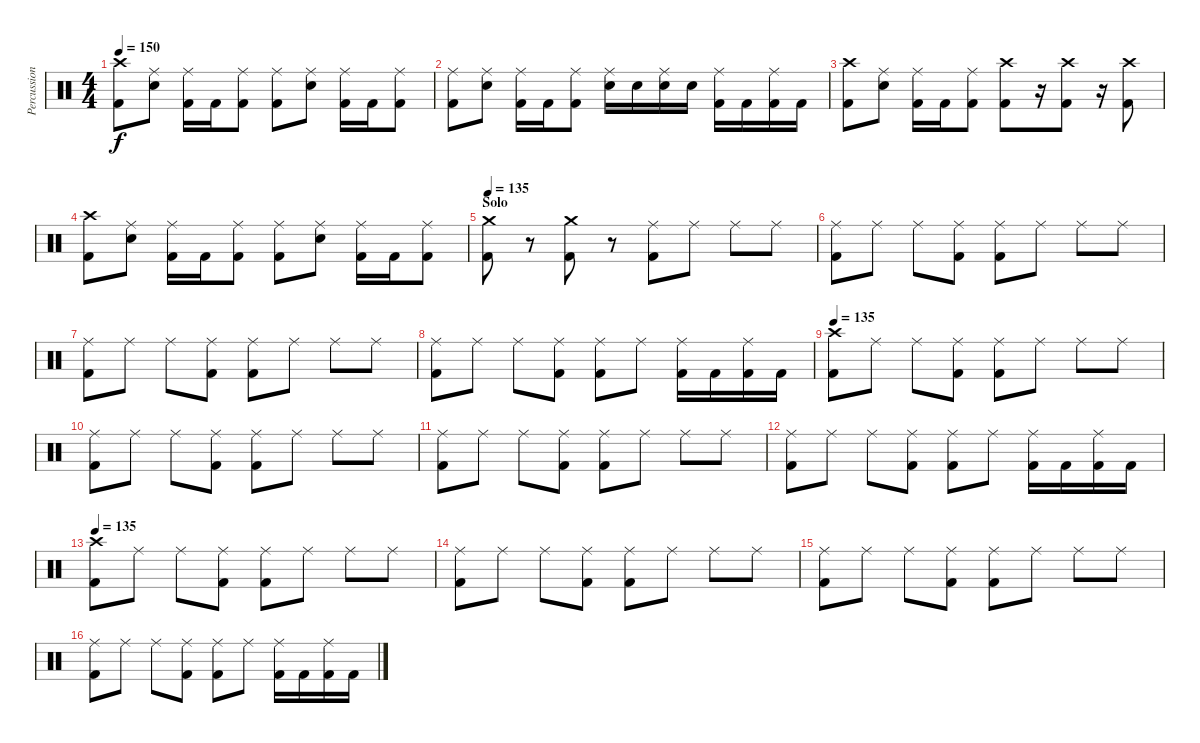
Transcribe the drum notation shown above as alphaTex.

\track ("Percussion" "Percussion") {instrument percussion}
\staff {score}
\articulation defaults
\ts (4 4)
\tempo 150
\clef neutral
\ks c
("Crash high (hit)" "Kick (hit) 2").8{dy f} ("Ride (middle)" "Electric Snare (hit)").8 ("Ride (middle)" "Kick (hit) 2").16 "Kick (hit) 2".16 ("Ride (middle)" "Kick (hit) 2").8 ("Ride (middle)" "Kick (hit) 2").8 ("Ride (middle)" "Electric Snare (hit)").8 ("Ride (middle)" "Kick (hit) 2").16 "Kick (hit) 2".16 ("Ride (middle)" "Kick (hit) 2").8 |
("Ride (middle)" "Kick (hit) 2").8 ("Ride (middle)" "Electric Snare (hit)").8 ("Ride (middle)" "Kick (hit) 2").16 "Kick (hit) 2".16 ("Ride (middle)" "Kick (hit) 2").8 ("Ride (middle)" "Electric Snare (hit)").16 "Electric Snare (hit)".16 ("Ride (middle)" "Electric Snare (hit)").16 "Electric Snare (hit)".16 ("Ride (middle)" "Kick (hit) 2").16 "Kick (hit) 2".16 ("Ride (middle)" "Kick (hit) 2").16 "Kick (hit) 2".16 |
("Crash high (hit)" "Kick (hit) 2").8 ("Ride (middle)" "Electric Snare (hit)").8 ("Ride (middle)" "Kick (hit) 2").16 "Kick (hit) 2".16 ("Ride (middle)" "Kick (hit) 2").8 ("Crash high (hit)" "Kick (hit) 2").8 r.16 ("Crash high (hit)" "Kick (hit) 2").8 r.16 ("Crash high (hit)" "Kick (hit) 2").8 |
("Crash high (hit)" "Kick (hit) 2").8 ("Ride (middle)" "Electric Snare (hit)").8 ("Ride (middle)" "Kick (hit) 2").16 "Kick (hit) 2".16 ("Ride (middle)" "Kick (hit) 2").8 ("Ride (middle)" "Kick (hit) 2").8 ("Ride (middle)" "Electric Snare (hit)").8 ("Ride (middle)" "Kick (hit) 2").16 "Kick (hit) 2".16 ("Ride (middle)" "Kick (hit) 2").8 |
\section ("" "Solo")
\tempo 135
("Crash medium (hit)" "Kick (hit) 2").8 r.8 ("Crash medium (hit)" "Kick (hit) 2").8 r.8 ("Ride (middle)" "Kick (hit) 2").8 "Ride (middle)".8 "Ride (middle)".8 "Ride (middle)".8 |
("Ride (middle)" "Kick (hit) 2").8 "Ride (middle)".8 "Ride (middle)".8 ("Ride (middle)" "Kick (hit) 2").8 ("Ride (middle)" "Kick (hit) 2").8 "Ride (middle)".8 "Ride (middle)".8 "Ride (middle)".8 |
("Ride (middle)" "Kick (hit) 2").8 "Ride (middle)".8 "Ride (middle)".8 ("Ride (middle)" "Kick (hit) 2").8 ("Ride (middle)" "Kick (hit) 2").8 "Ride (middle)".8 "Ride (middle)".8 "Ride (middle)".8 |
("Ride (middle)" "Kick (hit) 2").8 "Ride (middle)".8 "Ride (middle)".8 ("Ride (middle)" "Kick (hit) 2").8 ("Ride (middle)" "Kick (hit) 2").8 "Ride (middle)".8 ("Ride (middle)" "Kick (hit) 2").16 "Kick (hit) 2".16 ("Ride (middle)" "Kick (hit) 2").16 "Kick (hit) 2".16 |
\tempo 135
("Crash high (hit)" "Kick (hit) 2").8 "Ride (middle)".8 "Ride (middle)".8 ("Ride (middle)" "Kick (hit) 2").8 ("Ride (middle)" "Kick (hit) 2").8 "Ride (middle)".8 "Ride (middle)".8 "Ride (middle)".8 |
("Ride (middle)" "Kick (hit) 2").8 "Ride (middle)".8 "Ride (middle)".8 ("Ride (middle)" "Kick (hit) 2").8 ("Ride (middle)" "Kick (hit) 2").8 "Ride (middle)".8 "Ride (middle)".8 "Ride (middle)".8 |
("Ride (middle)" "Kick (hit) 2").8 "Ride (middle)".8 "Ride (middle)".8 ("Ride (middle)" "Kick (hit) 2").8 ("Ride (middle)" "Kick (hit) 2").8 "Ride (middle)".8 "Ride (middle)".8 "Ride (middle)".8 |
("Ride (middle)" "Kick (hit) 2").8 "Ride (middle)".8 "Ride (middle)".8 ("Ride (middle)" "Kick (hit) 2").8 ("Ride (middle)" "Kick (hit) 2").8 "Ride (middle)".8 ("Ride (middle)" "Kick (hit) 2").16 "Kick (hit) 2".16 ("Ride (middle)" "Kick (hit) 2").16 "Kick (hit) 2".16 |
\tempo 135
("Crash high (hit)" "Kick (hit) 2").8 "Ride (middle)".8 "Ride (middle)".8 ("Ride (middle)" "Kick (hit) 2").8 ("Ride (middle)" "Kick (hit) 2").8 "Ride (middle)".8 "Ride (middle)".8 "Ride (middle)".8 |
("Ride (middle)" "Kick (hit) 2").8 "Ride (middle)".8 "Ride (middle)".8 ("Ride (middle)" "Kick (hit) 2").8 ("Ride (middle)" "Kick (hit) 2").8 "Ride (middle)".8 "Ride (middle)".8 "Ride (middle)".8 |
("Ride (middle)" "Kick (hit) 2").8 "Ride (middle)".8 "Ride (middle)".8 ("Ride (middle)" "Kick (hit) 2").8 ("Ride (middle)" "Kick (hit) 2").8 "Ride (middle)".8 "Ride (middle)".8 "Ride (middle)".8 |
("Ride (middle)" "Kick (hit) 2").8 "Ride (middle)".8 "Ride (middle)".8 ("Ride (middle)" "Kick (hit) 2").8 ("Ride (middle)" "Kick (hit) 2").8 "Ride (middle)".8 ("Ride (middle)" "Kick (hit) 2").16 "Kick (hit) 2".16 ("Ride (middle)" "Kick (hit) 2").16 "Kick (hit) 2".16
